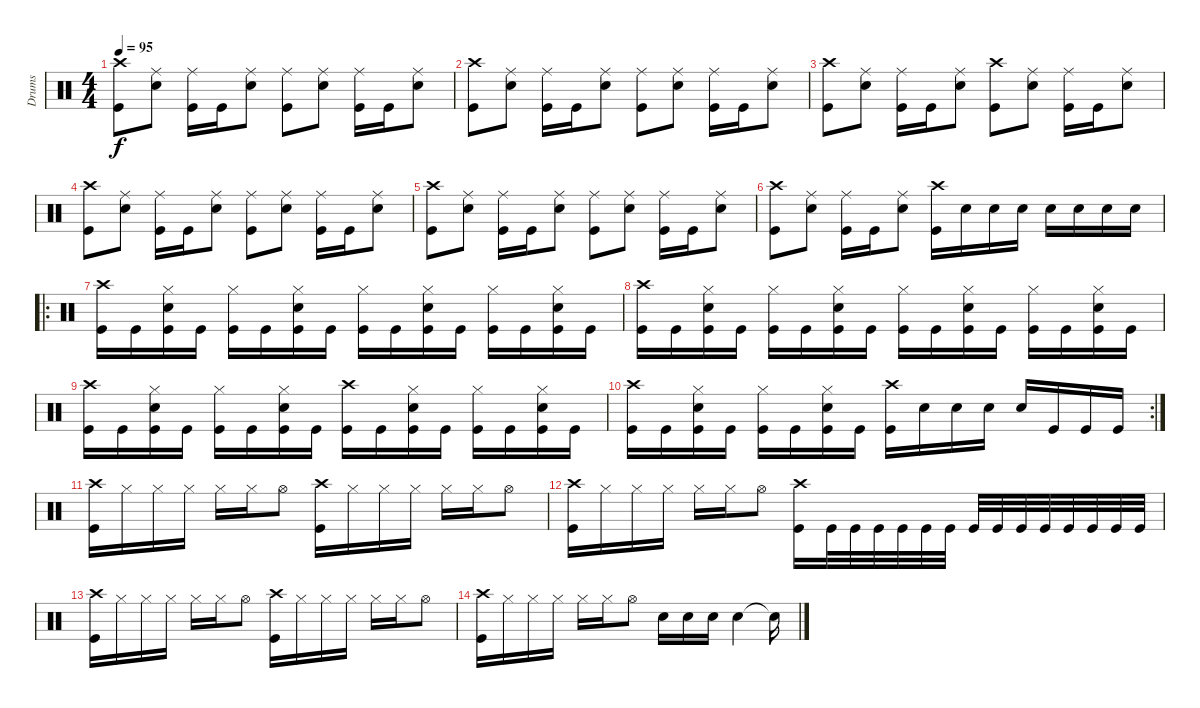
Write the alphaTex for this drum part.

\track ("Drums" "Drums") {instrument percussion}
\staff {score}
\articulation defaults
\ts (4 4)
\tempo 95
\clef neutral
\ks c
("Crash high (hit)" "Kick (hit)").8{dy f} ("Ride (middle)" "Snare (hit) 2").8 ("Ride (middle)" "Kick (hit)").16 "Kick (hit)".16 ("Ride (middle)" "Snare (hit) 2").8 ("Ride (middle)" "Kick (hit)").8 ("Ride (middle)" "Snare (hit) 2").8 ("Ride (middle)" "Kick (hit)").16 "Kick (hit)".16 ("Ride (middle)" "Snare (hit) 2").8 |
("Crash high (hit)" "Kick (hit)").8 ("Ride (middle)" "Snare (hit) 2").8 ("Ride (middle)" "Kick (hit)").16 "Kick (hit)".16 ("Ride (middle)" "Snare (hit) 2").8 ("Ride (middle)" "Kick (hit)").8 ("Ride (middle)" "Snare (hit) 2").8 ("Ride (middle)" "Kick (hit)").16 "Kick (hit)".16 ("Ride (middle)" "Snare (hit) 2").8 |
("Crash high (hit)" "Kick (hit)").8 ("Ride (middle)" "Snare (hit) 2").8 ("Ride (middle)" "Kick (hit)").16 "Kick (hit)".16 ("Ride (middle)" "Snare (hit) 2").8 ("Crash high (hit)" "Kick (hit)").8 ("Ride (middle)" "Snare (hit) 2").8 ("Ride (middle)" "Kick (hit)").16 "Kick (hit)".16 ("Ride (middle)" "Snare (hit) 2").8 |
("Crash high (hit)" "Kick (hit)").8 ("Ride (middle)" "Snare (hit) 2").8 ("Ride (middle)" "Kick (hit)").16 "Kick (hit)".16 ("Ride (middle)" "Snare (hit) 2").8 ("Ride (middle)" "Kick (hit)").8 ("Ride (middle)" "Snare (hit) 2").8 ("Ride (middle)" "Kick (hit)").16 "Kick (hit)".16 ("Ride (middle)" "Snare (hit) 2").8 |
("Crash high (hit)" "Kick (hit)").8 ("Ride (middle)" "Snare (hit) 2").8 ("Ride (middle)" "Kick (hit)").16 "Kick (hit)".16 ("Ride (middle)" "Snare (hit) 2").8 ("Ride (middle)" "Kick (hit)").8 ("Ride (middle)" "Snare (hit) 2").8 ("Ride (middle)" "Kick (hit)").16 "Kick (hit)".16 ("Ride (middle)" "Snare (hit) 2").8 |
("Crash high (hit)" "Kick (hit)").8 ("Ride (middle)" "Snare (hit) 2").8 ("Ride (middle)" "Kick (hit)").16 "Kick (hit)".16 ("Ride (middle)" "Snare (hit) 2").8 ("Crash high (hit)" "Kick (hit)").16 "Snare (hit) 2".16 "Snare (hit) 2".16 "Snare (hit) 2".16 "Snare (hit) 2".16 "Snare (hit) 2".16 "Snare (hit) 2".16 "Snare (hit) 2".16 |
\ro
("Crash high (hit)" "Kick (hit)").16 "Kick (hit)".16 ("Hi-Hat (closed)" "Snare (hit) 2" "Kick (hit)").16 "Kick (hit)".16 ("Hi-Hat (closed)" "Kick (hit)").16 "Kick (hit)".16 ("Hi-Hat (closed)" "Snare (hit) 2" "Kick (hit)").16 "Kick (hit)".16 ("Hi-Hat (closed)" "Kick (hit)").16 "Kick (hit)".16 ("Hi-Hat (closed)" "Snare (hit) 2" "Kick (hit)").16 "Kick (hit)".16 ("Hi-Hat (closed)" "Kick (hit)").16 "Kick (hit)".16 ("Hi-Hat (closed)" "Snare (hit) 2" "Kick (hit)").16 "Kick (hit)".16 |
("Crash high (hit)" "Kick (hit)").16 "Kick (hit)".16 ("Hi-Hat (closed)" "Snare (hit) 2" "Kick (hit)").16 "Kick (hit)".16 ("Hi-Hat (closed)" "Kick (hit)").16 "Kick (hit)".16 ("Hi-Hat (closed)" "Snare (hit) 2" "Kick (hit)").16 "Kick (hit)".16 ("Hi-Hat (closed)" "Kick (hit)").16 "Kick (hit)".16 ("Hi-Hat (closed)" "Snare (hit) 2" "Kick (hit)").16 "Kick (hit)".16 ("Hi-Hat (closed)" "Kick (hit)").16 "Kick (hit)".16 ("Hi-Hat (closed)" "Snare (hit) 2" "Kick (hit)").16 "Kick (hit)".16 |
("Crash high (hit)" "Kick (hit)").16 "Kick (hit)".16 ("Hi-Hat (closed)" "Snare (hit) 2" "Kick (hit)").16 "Kick (hit)".16 ("Hi-Hat (closed)" "Kick (hit)").16 "Kick (hit)".16 ("Hi-Hat (closed)" "Snare (hit) 2" "Kick (hit)").16 "Kick (hit)".16 ("Crash high (hit)" "Kick (hit)").16 "Kick (hit)".16 ("Hi-Hat (closed)" "Snare (hit) 2" "Kick (hit)").16 "Kick (hit)".16 ("Hi-Hat (closed)" "Kick (hit)").16 "Kick (hit)".16 ("Hi-Hat (closed)" "Snare (hit) 2" "Kick (hit)").16 "Kick (hit)".16 |
\rc 2
("Crash high (hit)" "Kick (hit)").16 "Kick (hit)".16 ("Hi-Hat (closed)" "Snare (hit) 2" "Kick (hit)").16 "Kick (hit)".16 ("Hi-Hat (closed)" "Kick (hit)").16 "Kick (hit)".16 ("Hi-Hat (closed)" "Snare (hit) 2" "Kick (hit)").16 "Kick (hit)".16 ("Crash high (hit)" "Kick (hit)").16 "Snare (hit) 2".16 "Snare (hit) 2".16 "Snare (hit) 2".16 "Snare (hit) 2".16 "Kick (hit)".16 "Kick (hit)".16 "Kick (hit)".16 |
("Crash high (hit)" "Kick (hit)").16 "Hi-Hat (closed)".16 "Hi-Hat (closed)".16 "Hi-Hat (closed)".16 "Hi-Hat (closed)".16 "Hi-Hat (closed)".16 "Hi-Hat (open)".8 ("Crash high (hit)" "Kick (hit)").16 "Hi-Hat (closed)".16 "Hi-Hat (closed)".16 "Hi-Hat (closed)".16 "Hi-Hat (closed)".16 "Hi-Hat (closed)".16 "Hi-Hat (open)".8 |
("Crash high (hit)" "Kick (hit)").16 "Hi-Hat (closed)".16 "Hi-Hat (closed)".16 "Hi-Hat (closed)".16 "Hi-Hat (closed)".16 "Hi-Hat (closed)".16 "Hi-Hat (open)".8 ("Crash high (hit)" "Kick (hit)").16 "Kick (hit)".32 "Kick (hit)".32 "Kick (hit)".32 "Kick (hit)".32 "Kick (hit)".32 "Kick (hit)".32 "Kick (hit)".32 "Kick (hit)".32 "Kick (hit)".32 "Kick (hit)".32 "Kick (hit)".32 "Kick (hit)".32 "Kick (hit)".32 "Kick (hit)".32 |
("Crash high (hit)" "Kick (hit)").16 "Hi-Hat (closed)".16 "Hi-Hat (closed)".16 "Hi-Hat (closed)".16 "Hi-Hat (closed)".16 "Hi-Hat (closed)".16 "Hi-Hat (open)".8 ("Crash high (hit)" "Kick (hit)").16 "Hi-Hat (closed)".16 "Hi-Hat (closed)".16 "Hi-Hat (closed)".16 "Hi-Hat (closed)".16 "Hi-Hat (closed)".16 "Hi-Hat (open)".8 |
("Crash high (hit)" "Kick (hit)").16 "Hi-Hat (closed)".16 "Hi-Hat (closed)".16 "Hi-Hat (closed)".16 "Hi-Hat (closed)".16 "Hi-Hat (closed)".16 "Hi-Hat (open)".8 "Snare (hit) 2".16 "Snare (hit) 2".16 "Snare (hit) 2".16 "Snare (hit) 2".4 "Snare (hit) 2"{t}.16
